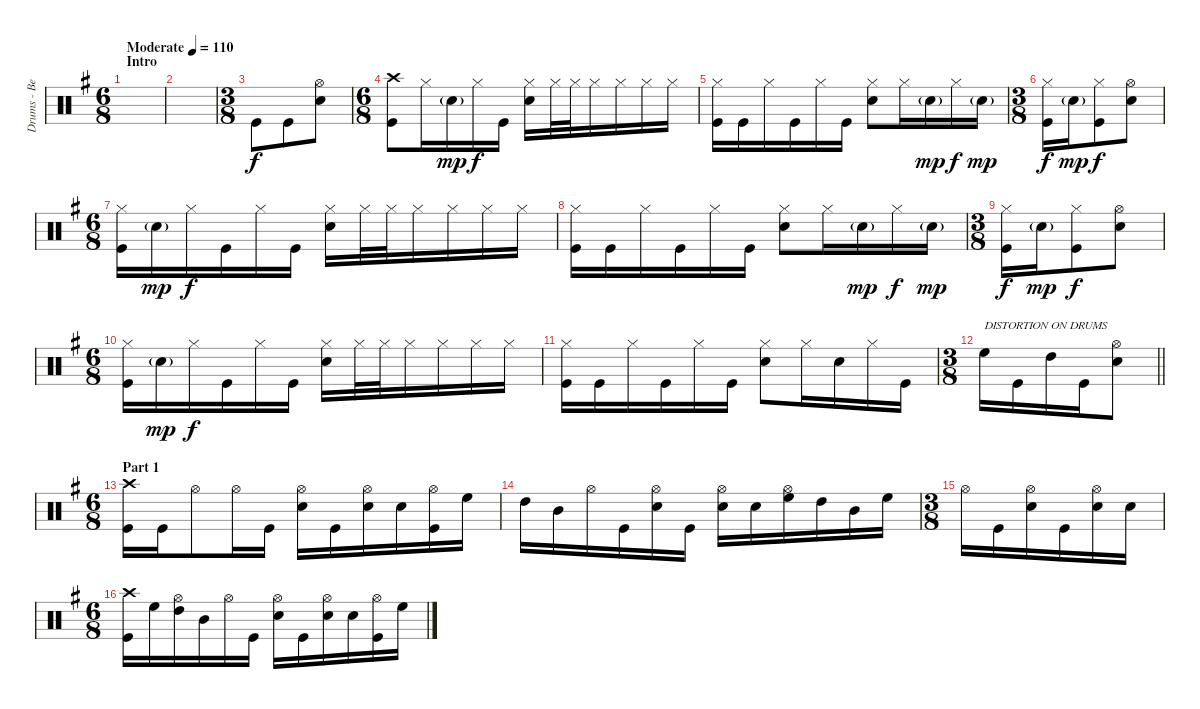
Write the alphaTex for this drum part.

\track ("Drums - Ben Johnston" "Drums - Be") {instrument percussion}
\staff {score}
\articulation defaults
\ts (6 8)
\section ("" "Intro")
\tempo (110 "Moderate")
\clef neutral
\ks g
|
|
\ts (3 8)
"Kick (hit)".8 "Kick (hit)".8 ("Hi-Hat (open)" "Snare (hit) 2").8 |
\ts (6 8)
("Crash high (hit)" "Kick (hit)").8 "Hi-Hat (closed)".16 "Snare (hit) 2"{g}.16{dy mp} "Hi-Hat (closed)".16{dy f} "Kick (hit)".16 ("Hi-Hat (closed)" "Snare (hit) 2").16 "Hi-Hat (closed)".32 "Hi-Hat (closed)".32 "Hi-Hat (closed)".16 "Hi-Hat (closed)".16 "Hi-Hat (closed)".16 "Hi-Hat (closed)".16 |
("Hi-Hat (closed)" "Kick (hit)").16 "Kick (hit)".16 "Hi-Hat (closed)".16 "Kick (hit)".16 "Hi-Hat (closed)".16 "Kick (hit)".16 ("Hi-Hat (closed)" "Snare (hit) 2").8 "Hi-Hat (closed)".16 "Snare (hit) 2"{g}.16{dy mp} "Hi-Hat (closed)".16{dy f} "Snare (hit) 2"{g}.16{dy mp} |
\ts (3 8)
("Hi-Hat (closed)" "Kick (hit)").16{dy f} "Snare (hit) 2"{g}.16{dy mp} ("Hi-Hat (closed)" "Kick (hit)").8{dy f} ("Hi-Hat (open)" "Snare (hit) 2").8 |
\ts (6 8)
("Hi-Hat (closed)" "Kick (hit)").16 "Snare (hit) 2"{g}.16{dy mp} "Hi-Hat (closed)".16{dy f} "Kick (hit)".16 "Hi-Hat (closed)".16 "Kick (hit)".16 ("Hi-Hat (closed)" "Snare (hit) 2").16 "Hi-Hat (closed)".32 "Hi-Hat (closed)".32 "Hi-Hat (closed)".16 "Hi-Hat (closed)".16 "Hi-Hat (closed)".16 "Hi-Hat (closed)".16 |
("Hi-Hat (closed)" "Kick (hit)").16 "Kick (hit)".16 "Hi-Hat (closed)".16 "Kick (hit)".16 "Hi-Hat (closed)".16 "Kick (hit)".16 ("Hi-Hat (closed)" "Snare (hit) 2").8 "Hi-Hat (closed)".16 "Snare (hit) 2"{g}.16{dy mp} "Hi-Hat (closed)".16{dy f} "Snare (hit) 2"{g}.16{dy mp} |
\ts (3 8)
("Hi-Hat (closed)" "Kick (hit)").16{dy f} "Snare (hit) 2"{g}.16{dy mp} ("Hi-Hat (closed)" "Kick (hit)").8{dy f} ("Hi-Hat (open)" "Snare (hit) 2").8 |
\ts (6 8)
("Hi-Hat (closed)" "Kick (hit)").16 "Snare (hit) 2"{g}.16{dy mp} "Hi-Hat (closed)".16{dy f} "Kick (hit)".16 "Hi-Hat (closed)".16 "Kick (hit)".16 ("Hi-Hat (closed)" "Snare (hit) 2").16 "Hi-Hat (closed)".32 "Hi-Hat (closed)".32 "Hi-Hat (closed)".16 "Hi-Hat (closed)".16 "Hi-Hat (closed)".16 "Hi-Hat (closed)".16 |
("Hi-Hat (closed)" "Kick (hit)").16 "Kick (hit)".16 "Hi-Hat (closed)".16 "Kick (hit)".16 "Hi-Hat (closed)".16 "Kick (hit)".16 ("Hi-Hat (closed)" "Snare (hit) 2").8 "Hi-Hat (closed)".16 "Snare (hit) 2".16 "Hi-Hat (closed)".16 "Kick (hit)".16 |
\ts (3 8)
\barLineRight lightlight "High Floor Tom (hit)".16{txt "DISTORTION ON DRUMS"} "Kick (hit)".16 "High Tom (hit)".16 "Kick (hit)".16
("Hi-Hat (open)" "Snare (hit) 2").8 |
\ts (6 8)
\section ("" "Part 1")
("Crash high (hit)" "Kick (hit)").16{volume 16} "Kick (hit)".16 "Hi-Hat (open)".8 "Hi-Hat (open)".16 "Kick (hit)".16 ("Hi-Hat (open)" "Snare (hit) 2").16 "Kick (hit)".16 ("Hi-Hat (open)" "Snare (hit) 2").16 "Snare (hit) 2".16 ("Hi-Hat (open)" "Kick (hit)").16 "High Floor Tom (hit)".16 |
"High Tom (hit)".16 "Mid Tom (hit)".16 "Hi-Hat (open)".16 "Kick (hit)".16 ("Hi-Hat (open)" "Snare (hit) 2").16 "Kick (hit)".16 ("Hi-Hat (open)" "Snare (hit) 2").16 "Snare (hit) 2".16 ("Hi-Hat (open)" "High Floor Tom (hit)").16 "High Tom (hit)".16 "Mid Tom (hit)".16 "High Floor Tom (hit)".16 |
\ts (3 8)
"Hi-Hat (open)".16 "Kick (hit)".16 ("Hi-Hat (open)" "Snare (hit) 2").16 "Kick (hit)".16 ("Hi-Hat (open)" "Snare (hit) 2").16 "Snare (hit) 2".16 |
\ts (6 8)
("Crash high (hit)" "Kick (hit)").16 "High Floor Tom (hit)".16 ("Hi-Hat (open)" "High Tom (hit)").16 "Mid Tom (hit)".16 "Hi-Hat (open)".16 "Kick (hit)".16 ("Hi-Hat (open)" "Snare (hit) 2").16 "Kick (hit)".16 ("Hi-Hat (open)" "Snare (hit) 2").16 "Snare (hit) 2".16 ("Hi-Hat (open)" "Kick (hit)").16 "High Floor Tom (hit)".16
